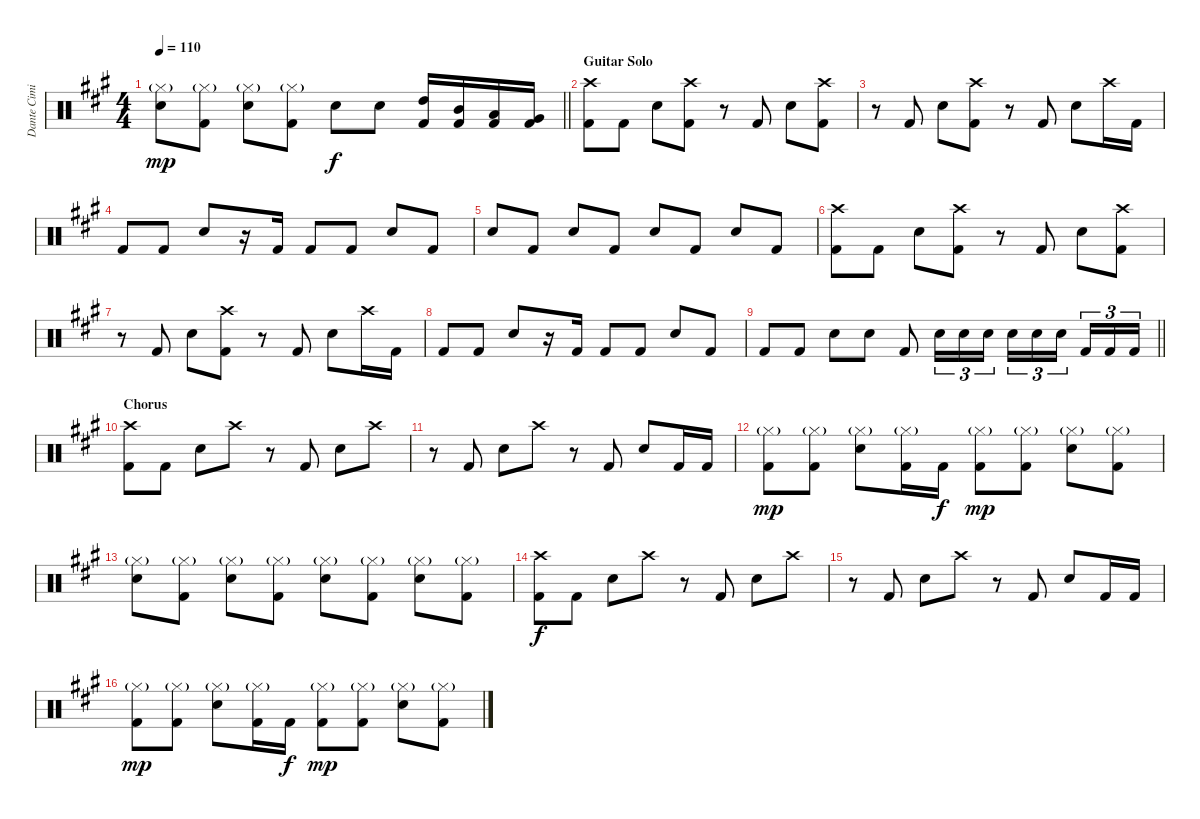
\track ("Dante Cimino" "Dante Cimi") {instrument percussion}
\staff {score}
\articulation defaults
\ts (4 4)
\tempo 110
\clef neutral
\barLineRight lightlight
\ks a
("Hi-Hat (closed)"{g} "Electric Snare (hit)").8{dy mp} ("Hi-Hat (closed)"{g} "Kick (hit) 2").8 ("Hi-Hat (closed)"{g} "Electric Snare (hit)").8 ("Hi-Hat (closed)"{g} "Kick (hit) 2").8 "Electric Snare (hit)".8{dy f} "Electric Snare (hit)".8 ("High Tom (hit)" "Kick (hit) 2").16 ("Mid Tom (hit)" "Kick (hit) 2").16 ("Low Tom (hit)" "Kick (hit) 2").16 ("Very Low Tom (hit)" "Kick (hit) 2").16 |
\section ("" "Guitar Solo")
("Crash high (hit)" "Kick (hit) 2").8 "Kick (hit) 2".8 "Electric Snare (hit)".8 ("Crash high (hit)" "Kick (hit) 2").8 r.8 "Kick (hit) 2".8 "Electric Snare (hit)".8 ("Crash high (hit)" "Kick (hit) 2").8 |
r.8 "Kick (hit) 2".8 "Electric Snare (hit)".8 ("Crash high (hit)" "Kick (hit) 2").8 r.8 "Kick (hit) 2".8 "Electric Snare (hit)".8 "Crash high (hit)".16 "Kick (hit) 2".16 |
"Kick (hit) 2".8 "Kick (hit) 2".8 "Electric Snare (hit)".8 r.16 "Kick (hit) 2".16 "Kick (hit) 2".8 "Kick (hit) 2".8 "Electric Snare (hit)".8 "Kick (hit) 2".8 |
"Electric Snare (hit)".8 "Kick (hit) 2".8 "Electric Snare (hit)".8 "Kick (hit) 2".8 "Electric Snare (hit)".8 "Kick (hit) 2".8 "Electric Snare (hit)".8 "Kick (hit) 2".8 |
("Crash high (hit)" "Kick (hit) 2").8 "Kick (hit) 2".8 "Electric Snare (hit)".8 ("Crash high (hit)" "Kick (hit) 2").8 r.8 "Kick (hit) 2".8 "Electric Snare (hit)".8 ("Crash high (hit)" "Kick (hit) 2").8 |
r.8 "Kick (hit) 2".8 "Electric Snare (hit)".8 ("Crash high (hit)" "Kick (hit) 2").8 r.8 "Kick (hit) 2".8 "Electric Snare (hit)".8 "Crash high (hit)".16 "Kick (hit) 2".16 |
"Kick (hit) 2".8 "Kick (hit) 2".8 "Electric Snare (hit)".8 r.16 "Kick (hit) 2".16 "Kick (hit) 2".8 "Kick (hit) 2".8 "Electric Snare (hit)".8 "Kick (hit) 2".8 |
\barLineRight lightlight "Kick (hit) 2".8 "Kick (hit) 2".8 "Electric Snare (hit)".8 "Electric Snare (hit)".8 "Kick (hit) 2".8 "Electric Snare (hit)".16{tu (3 2)} "Electric Snare (hit)".16{tu (3 2)} "Electric Snare (hit)".16{tu (3 2)} "Electric Snare (hit)".16{tu (3 2)} "Electric Snare (hit)".16{tu (3 2)} "Electric Snare (hit)".16{tu (3 2) beam splitsecondary} "Kick (hit) 2".16{tu (3 2)} "Kick (hit) 2".16{tu (3 2)} "Kick (hit) 2".16{tu (3 2)}
|
\section ("" "Chorus")
("Crash high (hit)" "Kick (hit) 2").8 "Kick (hit) 2".8 "Electric Snare (hit)".8 "Crash high (hit)".8 r.8 "Kick (hit) 2".8 "Electric Snare (hit)".8 "Crash high (hit)".8 |
r.8 "Kick (hit) 2".8 "Electric Snare (hit)".8 "Crash high (hit)".8 r.8 "Kick (hit) 2".8 "Electric Snare (hit)".8 "Kick (hit) 2".16 "Kick (hit) 2".16 |
("Hi-Hat (closed)"{g} "Kick (hit) 2").8{dy mp} ("Hi-Hat (closed)"{g} "Kick (hit) 2").8 ("Hi-Hat (closed)"{g} "Electric Snare (hit)").8 ("Hi-Hat (closed)"{g} "Kick (hit) 2").16 "Kick (hit) 2".16{dy f} ("Hi-Hat (closed)"{g} "Kick (hit) 2").8{dy mp} ("Hi-Hat (closed)"{g} "Kick (hit) 2").8 ("Hi-Hat (closed)"{g} "Electric Snare (hit)").8 ("Hi-Hat (closed)"{g} "Kick (hit) 2").8 |
("Hi-Hat (closed)"{g} "Electric Snare (hit)").8 ("Hi-Hat (closed)"{g} "Kick (hit) 2").8 ("Hi-Hat (closed)"{g} "Electric Snare (hit)").8 ("Hi-Hat (closed)"{g} "Kick (hit) 2").8 ("Hi-Hat (closed)"{g} "Electric Snare (hit)").8 ("Hi-Hat (closed)"{g} "Kick (hit) 2").8 ("Hi-Hat (closed)"{g} "Electric Snare (hit)").8 ("Hi-Hat (closed)"{g} "Kick (hit) 2").8 |
("Crash high (hit)" "Kick (hit) 2").8{dy f} "Kick (hit) 2".8 "Electric Snare (hit)".8 "Crash high (hit)".8 r.8 "Kick (hit) 2".8 "Electric Snare (hit)".8 "Crash high (hit)".8 |
r.8 "Kick (hit) 2".8 "Electric Snare (hit)".8 "Crash high (hit)".8 r.8 "Kick (hit) 2".8 "Electric Snare (hit)".8 "Kick (hit) 2".16 "Kick (hit) 2".16 |
("Hi-Hat (closed)"{g} "Kick (hit) 2").8{dy mp} ("Hi-Hat (closed)"{g} "Kick (hit) 2").8 ("Hi-Hat (closed)"{g} "Electric Snare (hit)").8 ("Hi-Hat (closed)"{g} "Kick (hit) 2").16 "Kick (hit) 2".16{dy f} ("Hi-Hat (closed)"{g} "Kick (hit) 2").8{dy mp} ("Hi-Hat (closed)"{g} "Kick (hit) 2").8 ("Hi-Hat (closed)"{g} "Electric Snare (hit)").8 ("Hi-Hat (closed)"{g} "Kick (hit) 2").8
